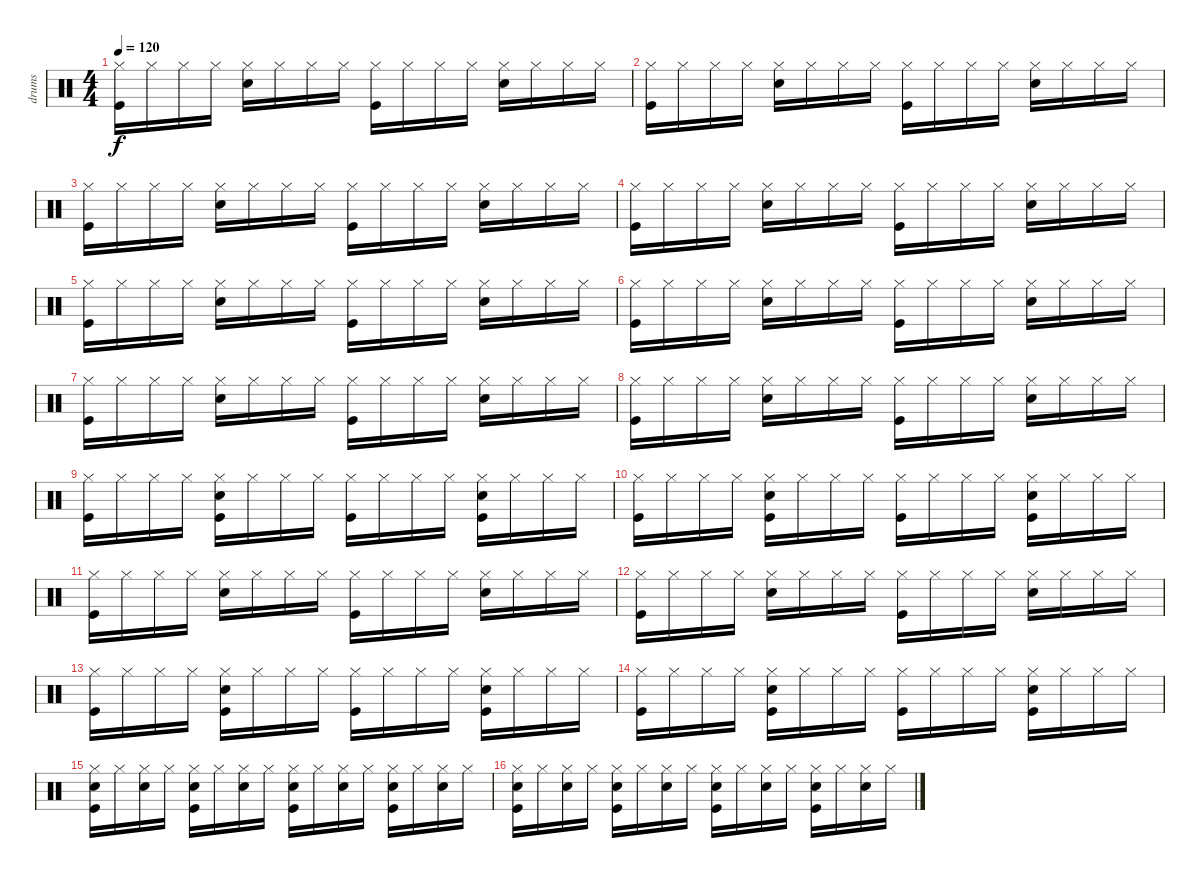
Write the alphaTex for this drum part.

\track ("drums" "drums") {instrument percussion}
\staff {score}
\articulation defaults
\ts (4 4)
\tempo 120
\clef neutral
\ks c
("Hi-Hat (closed)" "Kick (hit)").16{dy f} "Hi-Hat (closed)".16 "Hi-Hat (closed)".16 "Hi-Hat (closed)".16 ("Hi-Hat (closed)" "Electric Snare (hit)").16 "Hi-Hat (closed)".16 "Hi-Hat (closed)".16 "Hi-Hat (closed)".16 ("Hi-Hat (closed)" "Kick (hit)").16 "Hi-Hat (closed)".16 "Hi-Hat (closed)".16 "Hi-Hat (closed)".16 ("Hi-Hat (closed)" "Electric Snare (hit)").16 "Hi-Hat (closed)".16 "Hi-Hat (closed)".16 "Hi-Hat (closed)".16 |
("Hi-Hat (closed)" "Kick (hit)").16 "Hi-Hat (closed)".16 "Hi-Hat (closed)".16 "Hi-Hat (closed)".16 ("Hi-Hat (closed)" "Electric Snare (hit)").16 "Hi-Hat (closed)".16 "Hi-Hat (closed)".16 "Hi-Hat (closed)".16 ("Hi-Hat (closed)" "Kick (hit)").16 "Hi-Hat (closed)".16 "Hi-Hat (closed)".16 "Hi-Hat (closed)".16 ("Hi-Hat (closed)" "Electric Snare (hit)").16 "Hi-Hat (closed)".16 "Hi-Hat (closed)".16 "Hi-Hat (closed)".16 |
("Hi-Hat (closed)" "Kick (hit)").16 "Hi-Hat (closed)".16 "Hi-Hat (closed)".16 "Hi-Hat (closed)".16 ("Hi-Hat (closed)" "Electric Snare (hit)").16 "Hi-Hat (closed)".16 "Hi-Hat (closed)".16 "Hi-Hat (closed)".16 ("Hi-Hat (closed)" "Kick (hit)").16 "Hi-Hat (closed)".16 "Hi-Hat (closed)".16 "Hi-Hat (closed)".16 ("Hi-Hat (closed)" "Electric Snare (hit)").16 "Hi-Hat (closed)".16 "Hi-Hat (closed)".16 "Hi-Hat (closed)".16 |
("Hi-Hat (closed)" "Kick (hit)").16 "Hi-Hat (closed)".16 "Hi-Hat (closed)".16 "Hi-Hat (closed)".16 ("Hi-Hat (closed)" "Electric Snare (hit)").16 "Hi-Hat (closed)".16 "Hi-Hat (closed)".16 "Hi-Hat (closed)".16 ("Hi-Hat (closed)" "Kick (hit)").16 "Hi-Hat (closed)".16 "Hi-Hat (closed)".16 "Hi-Hat (closed)".16 ("Hi-Hat (closed)" "Electric Snare (hit)").16 "Hi-Hat (closed)".16 "Hi-Hat (closed)".16 "Hi-Hat (closed)".16 |
("Hi-Hat (closed)" "Kick (hit)").16 "Hi-Hat (closed)".16 "Hi-Hat (closed)".16 "Hi-Hat (closed)".16 ("Hi-Hat (closed)" "Electric Snare (hit)").16 "Hi-Hat (closed)".16 "Hi-Hat (closed)".16 "Hi-Hat (closed)".16 ("Hi-Hat (closed)" "Kick (hit)").16 "Hi-Hat (closed)".16 "Hi-Hat (closed)".16 "Hi-Hat (closed)".16 ("Hi-Hat (closed)" "Electric Snare (hit)").16 "Hi-Hat (closed)".16 "Hi-Hat (closed)".16 "Hi-Hat (closed)".16 |
("Hi-Hat (closed)" "Kick (hit)").16 "Hi-Hat (closed)".16 "Hi-Hat (closed)".16 "Hi-Hat (closed)".16 ("Hi-Hat (closed)" "Electric Snare (hit)").16 "Hi-Hat (closed)".16 "Hi-Hat (closed)".16 "Hi-Hat (closed)".16 ("Hi-Hat (closed)" "Kick (hit)").16 "Hi-Hat (closed)".16 "Hi-Hat (closed)".16 "Hi-Hat (closed)".16 ("Hi-Hat (closed)" "Electric Snare (hit)").16 "Hi-Hat (closed)".16 "Hi-Hat (closed)".16 "Hi-Hat (closed)".16 |
("Hi-Hat (closed)" "Kick (hit)").16 "Hi-Hat (closed)".16 "Hi-Hat (closed)".16 "Hi-Hat (closed)".16 ("Hi-Hat (closed)" "Electric Snare (hit)").16 "Hi-Hat (closed)".16 "Hi-Hat (closed)".16 "Hi-Hat (closed)".16 ("Hi-Hat (closed)" "Kick (hit)").16 "Hi-Hat (closed)".16 "Hi-Hat (closed)".16 "Hi-Hat (closed)".16 ("Hi-Hat (closed)" "Electric Snare (hit)").16 "Hi-Hat (closed)".16 "Hi-Hat (closed)".16 "Hi-Hat (closed)".16 |
("Hi-Hat (closed)" "Kick (hit)").16 "Hi-Hat (closed)".16 "Hi-Hat (closed)".16 "Hi-Hat (closed)".16 ("Hi-Hat (closed)" "Electric Snare (hit)").16 "Hi-Hat (closed)".16 "Hi-Hat (closed)".16 "Hi-Hat (closed)".16 ("Hi-Hat (closed)" "Kick (hit)").16 "Hi-Hat (closed)".16 "Hi-Hat (closed)".16 "Hi-Hat (closed)".16 ("Hi-Hat (closed)" "Electric Snare (hit)").16 "Hi-Hat (closed)".16 "Hi-Hat (closed)".16 "Hi-Hat (closed)".16 |
("Hi-Hat (closed)" "Kick (hit)").16 "Hi-Hat (closed)".16 "Hi-Hat (closed)".16 "Hi-Hat (closed)".16 ("Hi-Hat (closed)" "Electric Snare (hit)" "Kick (hit)").16 "Hi-Hat (closed)".16 "Hi-Hat (closed)".16 "Hi-Hat (closed)".16 ("Hi-Hat (closed)" "Kick (hit)").16 "Hi-Hat (closed)".16 "Hi-Hat (closed)".16 "Hi-Hat (closed)".16 ("Hi-Hat (closed)" "Electric Snare (hit)" "Kick (hit)").16 "Hi-Hat (closed)".16 "Hi-Hat (closed)".16 "Hi-Hat (closed)".16 |
("Hi-Hat (closed)" "Kick (hit)").16 "Hi-Hat (closed)".16 "Hi-Hat (closed)".16 "Hi-Hat (closed)".16 ("Hi-Hat (closed)" "Electric Snare (hit)" "Kick (hit)").16 "Hi-Hat (closed)".16 "Hi-Hat (closed)".16 "Hi-Hat (closed)".16 ("Hi-Hat (closed)" "Kick (hit)").16 "Hi-Hat (closed)".16 "Hi-Hat (closed)".16 "Hi-Hat (closed)".16 ("Hi-Hat (closed)" "Electric Snare (hit)" "Kick (hit)").16 "Hi-Hat (closed)".16 "Hi-Hat (closed)".16 "Hi-Hat (closed)".16 |
("Hi-Hat (closed)" "Kick (hit)").16 "Hi-Hat (closed)".16 "Hi-Hat (closed)".16 "Hi-Hat (closed)".16 ("Hi-Hat (closed)" "Electric Snare (hit)").16 "Hi-Hat (closed)".16 "Hi-Hat (closed)".16 "Hi-Hat (closed)".16 ("Hi-Hat (closed)" "Kick (hit)").16 "Hi-Hat (closed)".16 "Hi-Hat (closed)".16 "Hi-Hat (closed)".16 ("Hi-Hat (closed)" "Electric Snare (hit)").16 "Hi-Hat (closed)".16 "Hi-Hat (closed)".16 "Hi-Hat (closed)".16 |
("Hi-Hat (closed)" "Kick (hit)").16 "Hi-Hat (closed)".16 "Hi-Hat (closed)".16 "Hi-Hat (closed)".16 ("Hi-Hat (closed)" "Electric Snare (hit)").16 "Hi-Hat (closed)".16 "Hi-Hat (closed)".16 "Hi-Hat (closed)".16 ("Hi-Hat (closed)" "Kick (hit)").16 "Hi-Hat (closed)".16 "Hi-Hat (closed)".16 "Hi-Hat (closed)".16 ("Hi-Hat (closed)" "Electric Snare (hit)").16 "Hi-Hat (closed)".16 "Hi-Hat (closed)".16 "Hi-Hat (closed)".16 |
("Hi-Hat (closed)" "Kick (hit)").16 "Hi-Hat (closed)".16 "Hi-Hat (closed)".16 "Hi-Hat (closed)".16 ("Hi-Hat (closed)" "Electric Snare (hit)" "Kick (hit)").16 "Hi-Hat (closed)".16 "Hi-Hat (closed)".16 "Hi-Hat (closed)".16 ("Hi-Hat (closed)" "Kick (hit)").16 "Hi-Hat (closed)".16 "Hi-Hat (closed)".16 "Hi-Hat (closed)".16 ("Hi-Hat (closed)" "Electric Snare (hit)" "Kick (hit)").16 "Hi-Hat (closed)".16 "Hi-Hat (closed)".16 "Hi-Hat (closed)".16 |
("Hi-Hat (closed)" "Kick (hit)").16 "Hi-Hat (closed)".16 "Hi-Hat (closed)".16 "Hi-Hat (closed)".16 ("Hi-Hat (closed)" "Electric Snare (hit)" "Kick (hit)").16 "Hi-Hat (closed)".16 "Hi-Hat (closed)".16 "Hi-Hat (closed)".16 ("Hi-Hat (closed)" "Kick (hit)").16 "Hi-Hat (closed)".16 "Hi-Hat (closed)".16 "Hi-Hat (closed)".16 ("Hi-Hat (closed)" "Electric Snare (hit)" "Kick (hit)").16 "Hi-Hat (closed)".16 "Hi-Hat (closed)".16 "Hi-Hat (closed)".16 |
("Hi-Hat (closed)" "Electric Snare (hit)" "Kick (hit)").16 "Hi-Hat (closed)".16 ("Hi-Hat (closed)" "Electric Snare (hit)").16 "Hi-Hat (closed)".16 ("Hi-Hat (closed)" "Electric Snare (hit)" "Kick (hit)").16 "Hi-Hat (closed)".16 ("Hi-Hat (closed)" "Electric Snare (hit)").16 "Hi-Hat (closed)".16 ("Hi-Hat (closed)" "Electric Snare (hit)" "Kick (hit)").16 "Hi-Hat (closed)".16 ("Hi-Hat (closed)" "Electric Snare (hit)").16 "Hi-Hat (closed)".16 ("Hi-Hat (closed)" "Electric Snare (hit)" "Kick (hit)").16 "Hi-Hat (closed)".16 ("Hi-Hat (closed)" "Electric Snare (hit)").16 "Hi-Hat (closed)".16 |
("Hi-Hat (closed)" "Electric Snare (hit)" "Kick (hit)").16 "Hi-Hat (closed)".16 ("Hi-Hat (closed)" "Electric Snare (hit)").16 "Hi-Hat (closed)".16 ("Hi-Hat (closed)" "Electric Snare (hit)" "Kick (hit)").16 "Hi-Hat (closed)".16 ("Hi-Hat (closed)" "Electric Snare (hit)").16 "Hi-Hat (closed)".16 ("Hi-Hat (closed)" "Electric Snare (hit)" "Kick (hit)").16 "Hi-Hat (closed)".16 ("Hi-Hat (closed)" "Electric Snare (hit)").16 "Hi-Hat (closed)".16 ("Hi-Hat (closed)" "Electric Snare (hit)" "Kick (hit)").16 "Hi-Hat (closed)".16 ("Hi-Hat (closed)" "Electric Snare (hit)").16 "Hi-Hat (closed)".16
